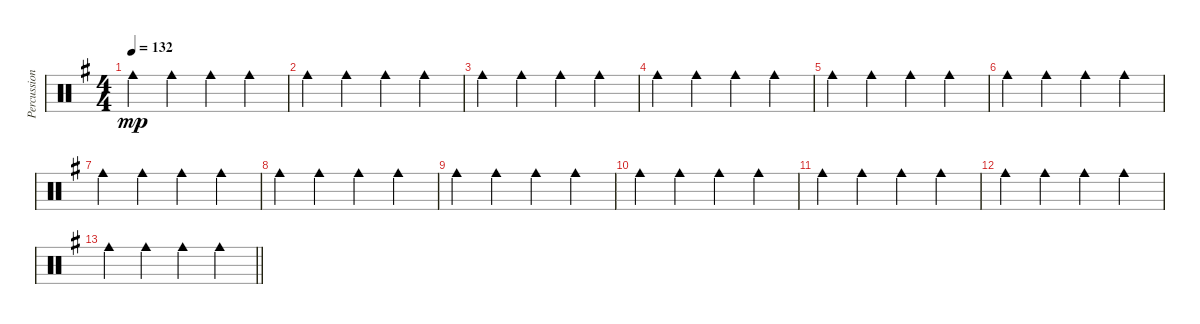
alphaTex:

\track ("Percussion" "Percussion") {instrument percussion}
\staff {score}
\articulation defaults
\ts (4 4)
\tempo 132
\clef neutral
\ks eminor "Cowbell medium (hit)".4{dy mp} "Cowbell medium (hit)".4 "Cowbell medium (hit)".4 "Cowbell medium (hit)".4
|
"Cowbell medium (hit)".4 "Cowbell medium (hit)".4 "Cowbell medium (hit)".4 "Cowbell medium (hit)".4 |
"Cowbell medium (hit)".4 "Cowbell medium (hit)".4 "Cowbell medium (hit)".4 "Cowbell medium (hit)".4 |
"Cowbell medium (hit)".4 "Cowbell medium (hit)".4 "Cowbell medium (hit)".4 "Cowbell medium (hit)".4 |
"Cowbell medium (hit)".4 "Cowbell medium (hit)".4 "Cowbell medium (hit)".4 "Cowbell medium (hit)".4 |
"Cowbell medium (hit)".4 "Cowbell medium (hit)".4 "Cowbell medium (hit)".4 "Cowbell medium (hit)".4 |
"Cowbell medium (hit)".4 "Cowbell medium (hit)".4 "Cowbell medium (hit)".4 "Cowbell medium (hit)".4 |
"Cowbell medium (hit)".4 "Cowbell medium (hit)".4 "Cowbell medium (hit)".4 "Cowbell medium (hit)".4 |
"Cowbell medium (hit)".4 "Cowbell medium (hit)".4 "Cowbell medium (hit)".4 "Cowbell medium (hit)".4 |
"Cowbell medium (hit)".4 "Cowbell medium (hit)".4 "Cowbell medium (hit)".4 "Cowbell medium (hit)".4 |
"Cowbell medium (hit)".4 "Cowbell medium (hit)".4 "Cowbell medium (hit)".4 "Cowbell medium (hit)".4 |
"Cowbell medium (hit)".4 "Cowbell medium (hit)".4 "Cowbell medium (hit)".4 "Cowbell medium (hit)".4 |
\barLineRight lightlight "Cowbell medium (hit)".4 "Cowbell medium (hit)".4 "Cowbell medium (hit)".4 "Cowbell medium (hit)".4
